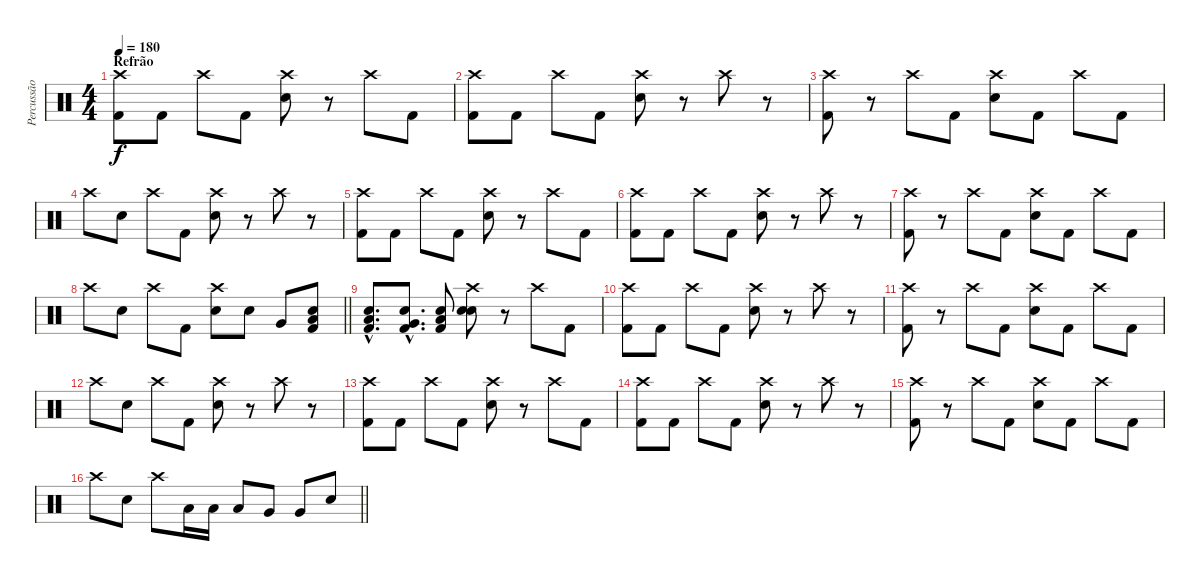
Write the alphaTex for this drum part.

\track ("Percussão" "Percussão") {instrument percussion}
\staff {score}
\articulation defaults
\ts (4 4)
\section ("" "Refrão")
\tempo 180
\clef neutral
\ks c
("Crash high (hit)" "Kick (hit) 2").8{dy f} "Kick (hit) 2".8 "Crash high (hit)".8 "Kick (hit) 2".8 ("Crash high (hit)" "Electric Snare (hit)").8 r.8 "Crash high (hit)".8 "Kick (hit) 2".8 |
("Crash high (hit)" "Kick (hit) 2").8 "Kick (hit) 2".8 "Crash high (hit)".8 "Kick (hit) 2".8 ("Crash high (hit)" "Electric Snare (hit)").8 r.8 "Crash high (hit)".8 r.8 |
("Crash high (hit)" "Kick (hit) 2").8 r.8 "Crash high (hit)".8 "Kick (hit) 2".8 ("Crash high (hit)" "Electric Snare (hit)").8 "Kick (hit) 2".8 "Crash high (hit)".8 "Kick (hit) 2".8 |
"Crash high (hit)".8 "Electric Snare (hit)".8 "Crash high (hit)".8 "Kick (hit) 2".8 ("Crash high (hit)" "Electric Snare (hit)").8 r.8 "Crash high (hit)".8 r.8 |
("Crash high (hit)" "Kick (hit) 2").8 "Kick (hit) 2".8 "Crash high (hit)".8 "Kick (hit) 2".8 ("Crash high (hit)" "Electric Snare (hit)").8 r.8 "Crash high (hit)".8 "Kick (hit) 2".8 |
("Crash high (hit)" "Kick (hit) 2").8 "Kick (hit) 2".8 "Crash high (hit)".8 "Kick (hit) 2".8 ("Crash high (hit)" "Electric Snare (hit)").8 r.8 "Crash high (hit)".8 r.8 |
("Crash high (hit)" "Kick (hit) 2").8 r.8 "Crash high (hit)".8 "Kick (hit) 2".8 ("Crash high (hit)" "Electric Snare (hit)").8 "Kick (hit) 2".8 "Crash high (hit)".8 "Kick (hit) 2".8 |
\barLineRight lightlight "Crash high (hit)".8 "Electric Snare (hit)".8 "Crash high (hit)".8 "Kick (hit) 2".8
("Crash high (hit)" "Electric Snare (hit)").8 "Electric Snare (hit)".8 "Very Low Tom (hit)".8 ("Low Tom (hit)" "Electric Snare (hit)" "Kick (hit) 2").8 |
("Low Tom (hit)"{hac} "Electric Snare (hit)"{hac} "Kick (hit) 2"{hac}).8{d} ("Very Low Tom (hit)"{hac} "Electric Snare (hit)"{hac} "Kick (hit) 2"{hac}).8{d} ("Low Floor Tom (hit)" "Electric Snare (hit)" "Kick (hit) 2").8 ("Crash high (hit)" "Electric Snare (hit)" "Electric Snare (hit)").8 r.8 "Crash high (hit)".8 "Kick (hit) 2".8 |
("Crash high (hit)" "Kick (hit) 2").8 "Kick (hit) 2".8 "Crash high (hit)".8 "Kick (hit) 2".8 ("Crash high (hit)" "Electric Snare (hit)").8 r.8 "Crash high (hit)".8 r.8 |
("Crash high (hit)" "Kick (hit) 2").8 r.8 "Crash high (hit)".8 "Kick (hit) 2".8 ("Crash high (hit)" "Electric Snare (hit)").8 "Kick (hit) 2".8 "Crash high (hit)".8 "Kick (hit) 2".8 |
"Crash high (hit)".8 "Electric Snare (hit)".8 "Crash high (hit)".8 "Kick (hit) 2".8 ("Crash high (hit)" "Electric Snare (hit)").8 r.8 "Crash high (hit)".8 r.8 |
("Crash high (hit)" "Kick (hit) 2").8 "Kick (hit) 2".8 "Crash high (hit)".8 "Kick (hit) 2".8 ("Crash high (hit)" "Electric Snare (hit)").8 r.8 "Crash high (hit)".8 "Kick (hit) 2".8 |
("Crash high (hit)" "Kick (hit) 2").8 "Kick (hit) 2".8 "Crash high (hit)".8 "Kick (hit) 2".8 ("Crash high (hit)" "Electric Snare (hit)").8 r.8 "Crash high (hit)".8 r.8 |
("Crash high (hit)" "Kick (hit) 2").8 r.8 "Crash high (hit)".8 "Kick (hit) 2".8 ("Crash high (hit)" "Electric Snare (hit)").8 "Kick (hit) 2".8 "Crash high (hit)".8 "Kick (hit) 2".8 |
\barLineRight lightlight "Crash high (hit)".8 "Electric Snare (hit)".8 "Crash high (hit)".8 "Low Tom (hit)".16 "Low Tom (hit)".16 "Low Tom (hit)".8 "Very Low Tom (hit)".8 "Very Low Tom (hit)".8 "Electric Snare (hit)".8
